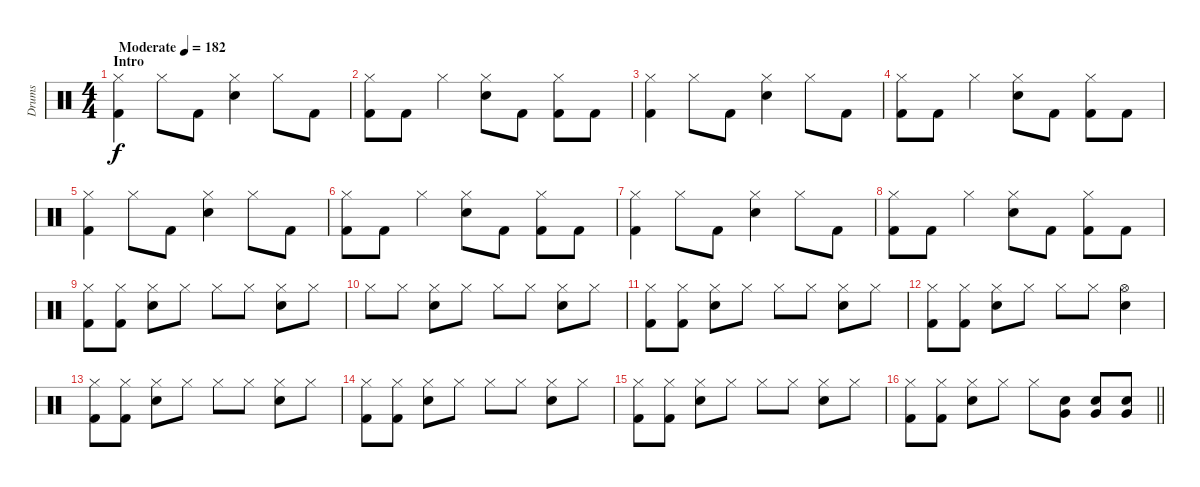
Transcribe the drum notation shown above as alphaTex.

\track ("Drums" "Drums") {instrument percussion}
\staff {score}
\articulation defaults
\ts (4 4)
\section ("" "Intro")
\tempo (182 "Moderate")
\clef neutral
\ks c
("Hi-Hat (closed)" "Kick (hit) 2").4{dy f volume 6 balance 11} "Hi-Hat (closed)".8 "Kick (hit) 2".8 ("Hi-Hat (closed)" "Electric Snare (hit)").4 "Hi-Hat (closed)".8 "Kick (hit) 2".8 |
("Hi-Hat (closed)" "Kick (hit) 2").8 "Kick (hit) 2".8 "Hi-Hat (closed)".4 ("Hi-Hat (closed)" "Electric Snare (hit)").8 "Kick (hit) 2".8 ("Hi-Hat (closed)" "Kick (hit) 2").8 "Kick (hit) 2".8 |
("Hi-Hat (closed)" "Kick (hit) 2").4 "Hi-Hat (closed)".8 "Kick (hit) 2".8 ("Hi-Hat (closed)" "Electric Snare (hit)").4 "Hi-Hat (closed)".8 "Kick (hit) 2".8 |
("Hi-Hat (closed)" "Kick (hit) 2").8 "Kick (hit) 2".8 "Hi-Hat (closed)".4 ("Hi-Hat (closed)" "Electric Snare (hit)").8 "Kick (hit) 2".8 ("Hi-Hat (closed)" "Kick (hit) 2").8 "Kick (hit) 2".8 |
("Hi-Hat (closed)" "Kick (hit) 2").4 "Hi-Hat (closed)".8 "Kick (hit) 2".8 ("Hi-Hat (closed)" "Electric Snare (hit)").4 "Hi-Hat (closed)".8 "Kick (hit) 2".8 |
("Hi-Hat (closed)" "Kick (hit) 2").8 "Kick (hit) 2".8 "Hi-Hat (closed)".4 ("Hi-Hat (closed)" "Electric Snare (hit)").8 "Kick (hit) 2".8 ("Hi-Hat (closed)" "Kick (hit) 2").8 "Kick (hit) 2".8 |
("Hi-Hat (closed)" "Kick (hit) 2").4 "Hi-Hat (closed)".8 "Kick (hit) 2".8 ("Hi-Hat (closed)" "Electric Snare (hit)").4 "Hi-Hat (closed)".8 "Kick (hit) 2".8 |
("Hi-Hat (closed)" "Kick (hit) 2").8 "Kick (hit) 2".8 "Hi-Hat (closed)".4 ("Hi-Hat (closed)" "Electric Snare (hit)").8 "Kick (hit) 2".8 ("Hi-Hat (closed)" "Kick (hit) 2").8 "Kick (hit) 2".8 |
("Hi-Hat (closed)" "Kick (hit) 2").8{volume 12 balance 8} ("Hi-Hat (closed)" "Kick (hit) 2").8 ("Hi-Hat (closed)" "Electric Snare (hit)").8 "Hi-Hat (closed)".8 "Hi-Hat (closed)".8 "Hi-Hat (closed)".8 ("Hi-Hat (closed)" "Electric Snare (hit)").8 "Hi-Hat (closed)".8 |
"Hi-Hat (closed)".8 "Hi-Hat (closed)".8 ("Hi-Hat (closed)" "Electric Snare (hit)").8 "Hi-Hat (closed)".8 "Hi-Hat (closed)".8 "Hi-Hat (closed)".8 ("Hi-Hat (closed)" "Electric Snare (hit)").8 "Hi-Hat (closed)".8 |
("Hi-Hat (closed)" "Kick (hit) 2").8 ("Hi-Hat (closed)" "Kick (hit) 2").8 ("Hi-Hat (closed)" "Electric Snare (hit)").8 "Hi-Hat (closed)".8 "Hi-Hat (closed)".8 "Hi-Hat (closed)".8 ("Hi-Hat (closed)" "Electric Snare (hit)").8 "Hi-Hat (closed)".8 |
("Hi-Hat (closed)" "Kick (hit) 2").8 ("Hi-Hat (closed)" "Kick (hit) 2").8 ("Hi-Hat (closed)" "Electric Snare (hit)").8 "Hi-Hat (closed)".8 "Hi-Hat (closed)".8 "Hi-Hat (closed)".8 ("Hi-Hat (open)" "Electric Snare (hit)").4 |
("Hi-Hat (closed)" "Kick (hit) 2").8 ("Hi-Hat (closed)" "Kick (hit) 2").8 ("Hi-Hat (closed)" "Electric Snare (hit)").8 "Hi-Hat (closed)".8 "Hi-Hat (closed)".8 "Hi-Hat (closed)".8 ("Hi-Hat (closed)" "Electric Snare (hit)").8 "Hi-Hat (closed)".8 |
("Hi-Hat (closed)" "Kick (hit) 2").8 ("Hi-Hat (closed)" "Kick (hit) 2").8 ("Hi-Hat (closed)" "Electric Snare (hit)").8 "Hi-Hat (closed)".8 "Hi-Hat (closed)".8 "Hi-Hat (closed)".8 ("Hi-Hat (closed)" "Electric Snare (hit)").8 "Hi-Hat (closed)".8 |
("Hi-Hat (closed)" "Kick (hit) 2").8 ("Hi-Hat (closed)" "Kick (hit) 2").8 ("Hi-Hat (closed)" "Electric Snare (hit)").8 "Hi-Hat (closed)".8 "Hi-Hat (closed)".8 "Hi-Hat (closed)".8 ("Hi-Hat (closed)" "Electric Snare (hit)").8 "Hi-Hat (closed)".8 |
\barLineRight lightlight
("Hi-Hat (closed)" "Kick (hit) 2").8 ("Hi-Hat (closed)" "Kick (hit) 2").8 ("Hi-Hat (closed)" "Electric Snare (hit)").8 "Hi-Hat (closed)".8 "Hi-Hat (closed)".8 ("Very Low Tom (hit)" "Electric Snare (hit)").8 ("Very Low Tom (hit)" "Electric Snare (hit)").8 ("Very Low Tom (hit)" "Electric Snare (hit)").8
